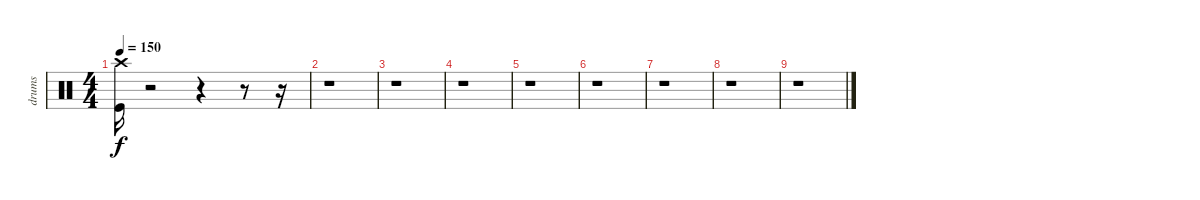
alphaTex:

\track ("drums" "drums") {instrument percussion}
\staff {score}
\articulation defaults
\ts (4 4)
\tempo 150
\clef neutral
\ks c
("Crash high (hit)" "Kick (hit)").16{dy f} r.2 r.4 r.8 r.16 |
r.1 |
r.1 |
r.1 |
r.1 |
r.1 |
r.1 |
r.1 |
r.1
